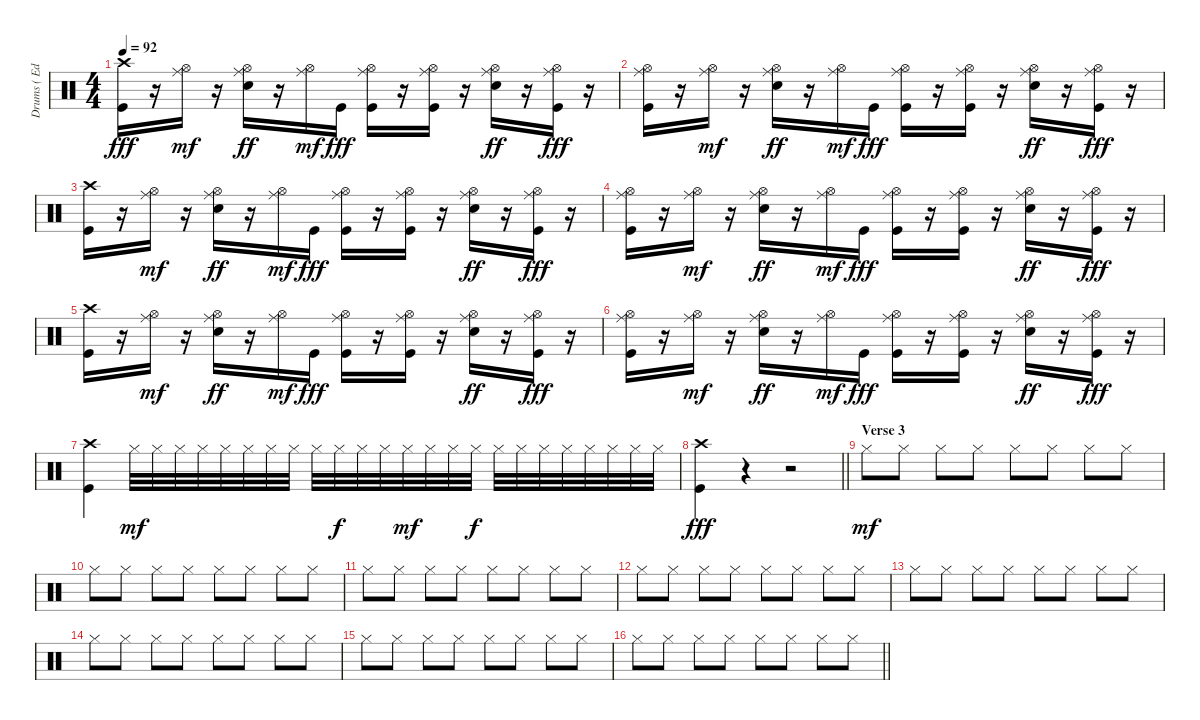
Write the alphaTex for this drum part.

\track ("Drums ( Edward O'Brien )" "Drums ( Ed") {instrument percussion}
\staff {score}
\articulation defaults
\ts (4 4)
\tempo 92
\clef neutral
\ks c
("Crash high (hit)" "Kick (hit)").16{dy fff} r.16 ("Ride (middle)" "Hi-Hat (open)").16{dy mf} r.16 ("Ride (middle)" "Hi-Hat (open)" "Electric Snare (hit)").16{dy ff} r.16 ("Ride (middle)" "Hi-Hat (open)").16{dy mf} "Kick (hit)".16{dy fff} ("Ride (middle)" "Hi-Hat (open)" "Kick (hit)").16 r.16 ("Ride (middle)" "Hi-Hat (open)" "Kick (hit)").16 r.16 ("Ride (middle)" "Hi-Hat (open)" "Electric Snare (hit)").16{dy ff} r.16 ("Ride (middle)" "Hi-Hat (open)" "Kick (hit)").16{dy fff} r.16 |
("Ride (middle)" "Hi-Hat (open)" "Kick (hit)").16 r.16 ("Ride (middle)" "Hi-Hat (open)").16{dy mf} r.16 ("Ride (middle)" "Hi-Hat (open)" "Electric Snare (hit)").16{dy ff} r.16 ("Ride (middle)" "Hi-Hat (open)").16{dy mf} "Kick (hit)".16{dy fff} ("Ride (middle)" "Hi-Hat (open)" "Kick (hit)").16 r.16 ("Ride (middle)" "Hi-Hat (open)" "Kick (hit)").16 r.16 ("Ride (middle)" "Hi-Hat (open)" "Electric Snare (hit)").16{dy ff} r.16 ("Ride (middle)" "Hi-Hat (open)" "Kick (hit)").16{dy fff} r.16 |
("Crash high (hit)" "Kick (hit)").16 r.16 ("Ride (middle)" "Hi-Hat (open)").16{dy mf} r.16 ("Ride (middle)" "Hi-Hat (open)" "Electric Snare (hit)").16{dy ff} r.16 ("Ride (middle)" "Hi-Hat (open)").16{dy mf} "Kick (hit)".16{dy fff} ("Ride (middle)" "Hi-Hat (open)" "Kick (hit)").16 r.16 ("Ride (middle)" "Hi-Hat (open)" "Kick (hit)").16 r.16 ("Ride (middle)" "Hi-Hat (open)" "Electric Snare (hit)").16{dy ff} r.16 ("Ride (middle)" "Hi-Hat (open)" "Kick (hit)").16{dy fff} r.16 |
("Ride (middle)" "Hi-Hat (open)" "Kick (hit)").16 r.16 ("Ride (middle)" "Hi-Hat (open)").16{dy mf} r.16 ("Ride (middle)" "Hi-Hat (open)" "Electric Snare (hit)").16{dy ff} r.16 ("Ride (middle)" "Hi-Hat (open)").16{dy mf} "Kick (hit)".16{dy fff} ("Ride (middle)" "Hi-Hat (open)" "Kick (hit)").16 r.16 ("Ride (middle)" "Hi-Hat (open)" "Kick (hit)").16 r.16 ("Ride (middle)" "Hi-Hat (open)" "Electric Snare (hit)").16{dy ff} r.16 ("Ride (middle)" "Hi-Hat (open)" "Kick (hit)").16{dy fff} r.16 |
("Crash high (hit)" "Kick (hit)").16 r.16 ("Ride (middle)" "Hi-Hat (open)").16{dy mf} r.16 ("Ride (middle)" "Hi-Hat (open)" "Electric Snare (hit)").16{dy ff} r.16 ("Ride (middle)" "Hi-Hat (open)").16{dy mf} "Kick (hit)".16{dy fff} ("Ride (middle)" "Hi-Hat (open)" "Kick (hit)").16 r.16 ("Ride (middle)" "Hi-Hat (open)" "Kick (hit)").16 r.16 ("Ride (middle)" "Hi-Hat (open)" "Electric Snare (hit)").16{dy ff} r.16 ("Ride (middle)" "Hi-Hat (open)" "Kick (hit)").16{dy fff} r.16 |
("Ride (middle)" "Hi-Hat (open)" "Kick (hit)").16 r.16 ("Ride (middle)" "Hi-Hat (open)").16{dy mf} r.16 ("Ride (middle)" "Hi-Hat (open)" "Electric Snare (hit)").16{dy ff} r.16 ("Ride (middle)" "Hi-Hat (open)").16{dy mf} "Kick (hit)".16{dy fff} ("Ride (middle)" "Hi-Hat (open)" "Kick (hit)").16 r.16 ("Ride (middle)" "Hi-Hat (open)" "Kick (hit)").16 r.16 ("Ride (middle)" "Hi-Hat (open)" "Electric Snare (hit)").16{dy ff} r.16 ("Ride (middle)" "Hi-Hat (open)" "Kick (hit)").16{dy fff} r.16 |
("Crash high (hit)" "Kick (hit)").4 "Hi-Hat (closed)".32{dy mf} "Hi-Hat (closed)".32 "Hi-Hat (closed)".32 "Hi-Hat (closed)".32 "Hi-Hat (closed)".32 "Hi-Hat (closed)".32 "Hi-Hat (closed)".32 "Hi-Hat (closed)".32 "Hi-Hat (closed)".32 "Hi-Hat (closed)".32{dy f} "Hi-Hat (closed)".32 "Hi-Hat (closed)".32 "Hi-Hat (closed)".32{dy mf} "Hi-Hat (closed)".32 "Hi-Hat (closed)".32 "Hi-Hat (closed)".32{dy f} "Hi-Hat (closed)".32 "Hi-Hat (closed)".32 "Hi-Hat (closed)".32 "Hi-Hat (closed)".32 "Hi-Hat (closed)".32 "Hi-Hat (closed)".32 "Hi-Hat (closed)".32 "Hi-Hat (closed)".32 |
\barLineRight lightlight
("Crash high (hit)" "Kick (hit)").4{dy fff} r.4 r.2 |
\section ("" "Verse 3")
"Hi-Hat (closed)".8{dy mf volume 6} "Hi-Hat (closed)".8 "Hi-Hat (closed)".8 "Hi-Hat (closed)".8 "Hi-Hat (closed)".8 "Hi-Hat (closed)".8 "Hi-Hat (closed)".8 "Hi-Hat (closed)".8 |
"Hi-Hat (closed)".8 "Hi-Hat (closed)".8 "Hi-Hat (closed)".8 "Hi-Hat (closed)".8 "Hi-Hat (closed)".8 "Hi-Hat (closed)".8 "Hi-Hat (closed)".8 "Hi-Hat (closed)".8 |
"Hi-Hat (closed)".8 "Hi-Hat (closed)".8 "Hi-Hat (closed)".8 "Hi-Hat (closed)".8 "Hi-Hat (closed)".8 "Hi-Hat (closed)".8 "Hi-Hat (closed)".8 "Hi-Hat (closed)".8 |
"Hi-Hat (closed)".8 "Hi-Hat (closed)".8 "Hi-Hat (closed)".8 "Hi-Hat (closed)".8 "Hi-Hat (closed)".8 "Hi-Hat (closed)".8 "Hi-Hat (closed)".8 "Hi-Hat (closed)".8 |
"Hi-Hat (closed)".8 "Hi-Hat (closed)".8 "Hi-Hat (closed)".8 "Hi-Hat (closed)".8 "Hi-Hat (closed)".8 "Hi-Hat (closed)".8 "Hi-Hat (closed)".8 "Hi-Hat (closed)".8 |
"Hi-Hat (closed)".8 "Hi-Hat (closed)".8 "Hi-Hat (closed)".8 "Hi-Hat (closed)".8 "Hi-Hat (closed)".8 "Hi-Hat (closed)".8 "Hi-Hat (closed)".8 "Hi-Hat (closed)".8 |
"Hi-Hat (closed)".8 "Hi-Hat (closed)".8 "Hi-Hat (closed)".8 "Hi-Hat (closed)".8 "Hi-Hat (closed)".8 "Hi-Hat (closed)".8 "Hi-Hat (closed)".8 "Hi-Hat (closed)".8 |
\barLineRight lightlight "Hi-Hat (closed)".8 "Hi-Hat (closed)".8 "Hi-Hat (closed)".8 "Hi-Hat (closed)".8 "Hi-Hat (closed)".8 "Hi-Hat (closed)".8 "Hi-Hat (closed)".8 "Hi-Hat (closed)".8
